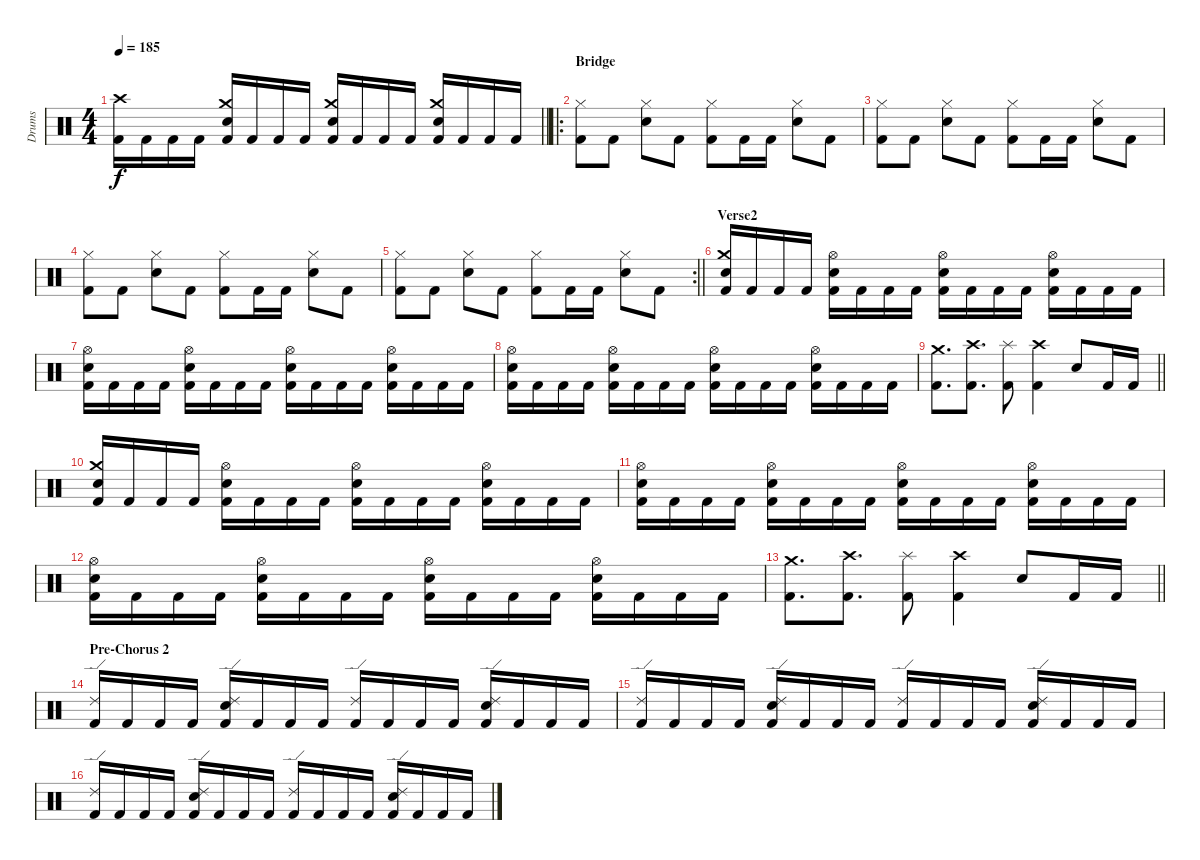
\track ("Drums" "Drums") {instrument percussion}
\staff {score}
\articulation defaults
\ts (4 4)
\tempo 185
\clef neutral
\barLineRight lightlight
\ks c
("Crash high (hit)" "Kick (hit) 2").16{dy f} "Kick (hit) 2".16 "Kick (hit) 2".16 "Kick (hit) 2".16 ("Crash medium (hit)" "Electric Snare (hit)" "Kick (hit) 2").16 "Kick (hit) 2".16 "Kick (hit) 2".16 "Kick (hit) 2".16 ("Crash medium (hit)" "Electric Snare (hit)" "Kick (hit) 2").16 "Kick (hit) 2".16 "Kick (hit) 2".16 "Kick (hit) 2".16 ("Crash medium (hit)" "Electric Snare (hit)" "Kick (hit) 2").16 "Kick (hit) 2".16 "Kick (hit) 2".16 "Kick (hit) 2".16 |
\ro
\section ("" "Bridge")
("Hi-Hat (closed)" "Kick (hit) 2").8 "Kick (hit) 2".8 ("Hi-Hat (closed)" "Electric Snare (hit)").8 "Kick (hit) 2".8 ("Hi-Hat (closed)" "Kick (hit) 2").8 "Kick (hit) 2".16 "Kick (hit) 2".16 ("Hi-Hat (closed)" "Electric Snare (hit)").8 "Kick (hit) 2".8 |
("Hi-Hat (closed)" "Kick (hit) 2").8 "Kick (hit) 2".8 ("Hi-Hat (closed)" "Electric Snare (hit)").8 "Kick (hit) 2".8 ("Hi-Hat (closed)" "Kick (hit) 2").8 "Kick (hit) 2".16 "Kick (hit) 2".16 ("Hi-Hat (closed)" "Electric Snare (hit)").8 "Kick (hit) 2".8 |
("Hi-Hat (closed)" "Kick (hit) 2").8 "Kick (hit) 2".8 ("Hi-Hat (closed)" "Electric Snare (hit)").8 "Kick (hit) 2".8 ("Hi-Hat (closed)" "Kick (hit) 2").8 "Kick (hit) 2".16 "Kick (hit) 2".16 ("Hi-Hat (closed)" "Electric Snare (hit)").8 "Kick (hit) 2".8 |
\rc 2
\barLineRight lightlight
("Hi-Hat (closed)" "Kick (hit) 2").8 "Kick (hit) 2".8 ("Hi-Hat (closed)" "Electric Snare (hit)").8 "Kick (hit) 2".8 ("Hi-Hat (closed)" "Kick (hit) 2").8 "Kick (hit) 2".16 "Kick (hit) 2".16 ("Hi-Hat (closed)" "Electric Snare (hit)").8 "Kick (hit) 2".8 |
\section ("" "Verse2")
("Crash medium (hit)" "Electric Snare (hit)" "Kick (hit) 2").16 "Kick (hit) 2".16 "Kick (hit) 2".16 "Kick (hit) 2".16 ("Hi-Hat (open)" "Electric Snare (hit)" "Kick (hit) 2").16 "Kick (hit) 2".16 "Kick (hit) 2".16 "Kick (hit) 2".16 ("Hi-Hat (open)" "Electric Snare (hit)" "Kick (hit) 2").16 "Kick (hit) 2".16 "Kick (hit) 2".16 "Kick (hit) 2".16 ("Hi-Hat (open)" "Electric Snare (hit)" "Kick (hit) 2").16 "Kick (hit) 2".16 "Kick (hit) 2".16 "Kick (hit) 2".16 |
("Hi-Hat (open)" "Electric Snare (hit)" "Kick (hit) 2").16 "Kick (hit) 2".16 "Kick (hit) 2".16 "Kick (hit) 2".16 ("Hi-Hat (open)" "Electric Snare (hit)" "Kick (hit) 2").16 "Kick (hit) 2".16 "Kick (hit) 2".16 "Kick (hit) 2".16 ("Hi-Hat (open)" "Electric Snare (hit)" "Kick (hit) 2").16 "Kick (hit) 2".16 "Kick (hit) 2".16 "Kick (hit) 2".16 ("Hi-Hat (open)" "Electric Snare (hit)" "Kick (hit) 2").16 "Kick (hit) 2".16 "Kick (hit) 2".16 "Kick (hit) 2".16 |
("Hi-Hat (open)" "Electric Snare (hit)" "Kick (hit) 2").16 "Kick (hit) 2".16 "Kick (hit) 2".16 "Kick (hit) 2".16 ("Hi-Hat (open)" "Electric Snare (hit)" "Kick (hit) 2").16 "Kick (hit) 2".16 "Kick (hit) 2".16 "Kick (hit) 2".16 ("Hi-Hat (open)" "Electric Snare (hit)" "Kick (hit) 2").16 "Kick (hit) 2".16 "Kick (hit) 2".16 "Kick (hit) 2".16 ("Hi-Hat (open)" "Electric Snare (hit)" "Kick (hit) 2").16 "Kick (hit) 2".16 "Kick (hit) 2".16 "Kick (hit) 2".16 |
\barLineRight lightlight
("Crash medium (hit)" "Kick (hit) 2").8{d} ("Crash high (hit)" "Kick (hit) 2").8{d} ("Splash (hit)" "Kick (hit) 2").8 ("Crash high (hit)" "Kick (hit) 2").4 "Electric Snare (hit)".8 "Kick (hit) 2".16 "Kick (hit) 2".16 |
("Crash medium (hit)" "Electric Snare (hit)" "Kick (hit) 2").16 "Kick (hit) 2".16 "Kick (hit) 2".16 "Kick (hit) 2".16 ("Hi-Hat (open)" "Electric Snare (hit)" "Kick (hit) 2").16 "Kick (hit) 2".16 "Kick (hit) 2".16 "Kick (hit) 2".16 ("Hi-Hat (open)" "Electric Snare (hit)" "Kick (hit) 2").16 "Kick (hit) 2".16 "Kick (hit) 2".16 "Kick (hit) 2".16 ("Hi-Hat (open)" "Electric Snare (hit)" "Kick (hit) 2").16 "Kick (hit) 2".16 "Kick (hit) 2".16 "Kick (hit) 2".16 |
("Hi-Hat (open)" "Electric Snare (hit)" "Kick (hit) 2").16 "Kick (hit) 2".16 "Kick (hit) 2".16 "Kick (hit) 2".16 ("Hi-Hat (open)" "Electric Snare (hit)" "Kick (hit) 2").16 "Kick (hit) 2".16 "Kick (hit) 2".16 "Kick (hit) 2".16 ("Hi-Hat (open)" "Electric Snare (hit)" "Kick (hit) 2").16 "Kick (hit) 2".16 "Kick (hit) 2".16 "Kick (hit) 2".16 ("Hi-Hat (open)" "Electric Snare (hit)" "Kick (hit) 2").16 "Kick (hit) 2".16 "Kick (hit) 2".16 "Kick (hit) 2".16 |
("Hi-Hat (open)" "Electric Snare (hit)" "Kick (hit) 2").16 "Kick (hit) 2".16 "Kick (hit) 2".16 "Kick (hit) 2".16 ("Hi-Hat (open)" "Electric Snare (hit)" "Kick (hit) 2").16 "Kick (hit) 2".16 "Kick (hit) 2".16 "Kick (hit) 2".16 ("Hi-Hat (open)" "Electric Snare (hit)" "Kick (hit) 2").16 "Kick (hit) 2".16 "Kick (hit) 2".16 "Kick (hit) 2".16 ("Hi-Hat (open)" "Electric Snare (hit)" "Kick (hit) 2").16 "Kick (hit) 2".16 "Kick (hit) 2".16 "Kick (hit) 2".16 |
\barLineRight lightlight
("Crash medium (hit)" "Kick (hit) 2").8{d} ("Crash high (hit)" "Kick (hit) 2").8{d} ("Splash (hit)" "Kick (hit) 2").8 ("Crash high (hit)" "Kick (hit) 2").4 "Electric Snare (hit)".8 "Kick (hit) 2".16 "Kick (hit) 2".16 |
\section ("" "Pre-Chorus 2")
("Ride (edge) 2" "Kick (hit) 2").16 "Kick (hit) 2".16 "Kick (hit) 2".16 "Kick (hit) 2".16 ("Ride (edge) 2" "Electric Snare (hit)" "Kick (hit) 2").16 "Kick (hit) 2".16 "Kick (hit) 2".16 "Kick (hit) 2".16 ("Ride (edge) 2" "Kick (hit) 2").16 "Kick (hit) 2".16 "Kick (hit) 2".16 "Kick (hit) 2".16 ("Ride (edge) 2" "Electric Snare (hit)" "Kick (hit) 2").16 "Kick (hit) 2".16 "Kick (hit) 2".16 "Kick (hit) 2".16 |
("Ride (edge) 2" "Kick (hit) 2").16 "Kick (hit) 2".16 "Kick (hit) 2".16 "Kick (hit) 2".16 ("Ride (edge) 2" "Electric Snare (hit)" "Kick (hit) 2").16 "Kick (hit) 2".16 "Kick (hit) 2".16 "Kick (hit) 2".16 ("Ride (edge) 2" "Kick (hit) 2").16 "Kick (hit) 2".16 "Kick (hit) 2".16 "Kick (hit) 2".16 ("Ride (edge) 2" "Electric Snare (hit)" "Kick (hit) 2").16 "Kick (hit) 2".16 "Kick (hit) 2".16 "Kick (hit) 2".16 |
("Ride (edge) 2" "Kick (hit) 2").16 "Kick (hit) 2".16 "Kick (hit) 2".16 "Kick (hit) 2".16 ("Ride (edge) 2" "Electric Snare (hit)" "Kick (hit) 2").16 "Kick (hit) 2".16 "Kick (hit) 2".16 "Kick (hit) 2".16 ("Ride (edge) 2" "Kick (hit) 2").16 "Kick (hit) 2".16 "Kick (hit) 2".16 "Kick (hit) 2".16 ("Ride (edge) 2" "Electric Snare (hit)" "Kick (hit) 2").16 "Kick (hit) 2".16 "Kick (hit) 2".16 "Kick (hit) 2".16
